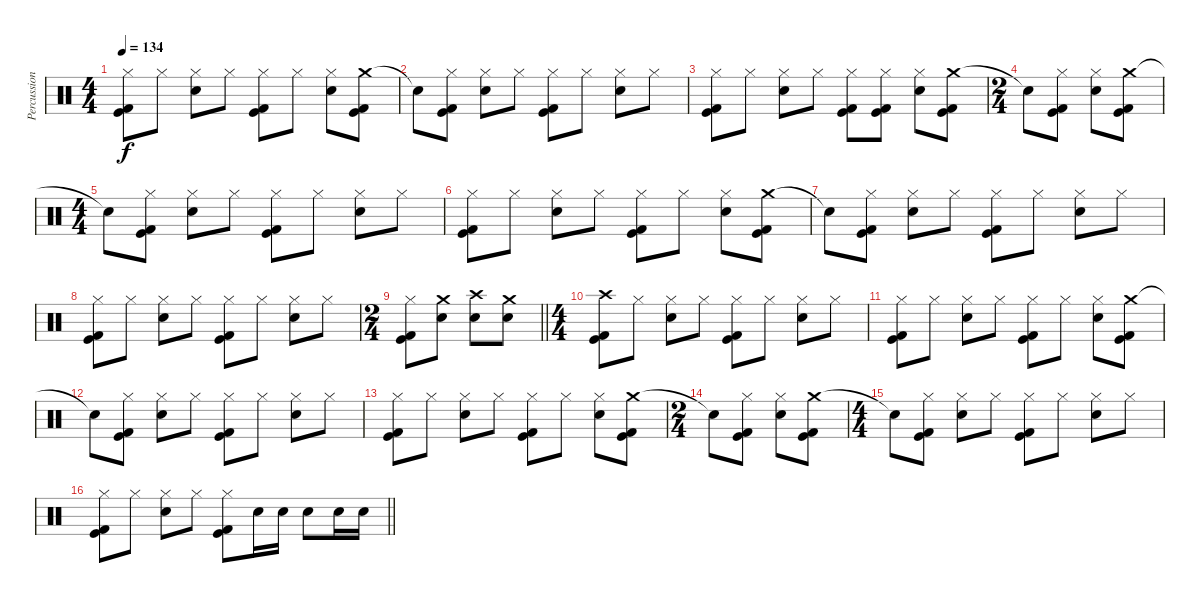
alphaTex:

\track ("Percussion" "Percussion") {instrument percussion}
\staff {score}
\articulation defaults
\ts (4 4)
\tempo 134
\clef neutral
\ks c
("Hi-Hat (closed)" "Kick (hit)" "Kick (hit) 2").8{dy f} "Hi-Hat (closed)".8 ("Hi-Hat (closed)" "Electric Snare (hit)").8 "Hi-Hat (closed)".8 ("Hi-Hat (closed)" "Kick (hit)" "Kick (hit) 2").8 "Hi-Hat (closed)".8 ("Hi-Hat (closed)" "Electric Snare (hit)").8 ("Crash medium (hit)" "Kick (hit)" "Kick (hit) 2").8 |
"Snare (hit)"{t}.8 ("Hi-Hat (closed)" "Kick (hit)" "Kick (hit) 2").8 ("Hi-Hat (closed)" "Electric Snare (hit)").8 "Hi-Hat (closed)".8 ("Hi-Hat (closed)" "Kick (hit)" "Kick (hit) 2").8 "Hi-Hat (closed)".8 ("Hi-Hat (closed)" "Electric Snare (hit)").8 "Hi-Hat (closed)".8 |
("Hi-Hat (closed)" "Kick (hit)" "Kick (hit) 2").8 "Hi-Hat (closed)".8 ("Hi-Hat (closed)" "Electric Snare (hit)").8 "Hi-Hat (closed)".8 ("Hi-Hat (closed)" "Kick (hit)" "Kick (hit) 2").8 ("Hi-Hat (closed)" "Kick (hit)" "Kick (hit) 2").8 ("Hi-Hat (closed)" "Electric Snare (hit)").8 ("Crash medium (hit)" "Kick (hit)" "Kick (hit) 2").8 |
\ts (2 4)
"Snare (hit)"{t}.8 ("Hi-Hat (closed)" "Kick (hit)" "Kick (hit) 2").8 ("Hi-Hat (closed)" "Electric Snare (hit)").8 ("Crash medium (hit)" "Kick (hit)" "Kick (hit) 2").8 |
\ts (4 4)
"Snare (hit)"{t}.8 ("Hi-Hat (closed)" "Kick (hit)" "Kick (hit) 2").8 ("Hi-Hat (closed)" "Electric Snare (hit)").8 "Hi-Hat (closed)".8 ("Hi-Hat (closed)" "Kick (hit)" "Kick (hit) 2").8 "Hi-Hat (closed)".8 ("Hi-Hat (closed)" "Electric Snare (hit)").8 "Hi-Hat (closed)".8 |
("Hi-Hat (closed)" "Kick (hit)" "Kick (hit) 2").8 "Hi-Hat (closed)".8 ("Hi-Hat (closed)" "Electric Snare (hit)").8 "Hi-Hat (closed)".8 ("Hi-Hat (closed)" "Kick (hit)" "Kick (hit) 2").8 "Hi-Hat (closed)".8 ("Hi-Hat (closed)" "Electric Snare (hit)").8 ("Crash medium (hit)" "Kick (hit)" "Kick (hit) 2").8 |
"Snare (hit)"{t}.8 ("Hi-Hat (closed)" "Kick (hit)" "Kick (hit) 2").8 ("Hi-Hat (closed)" "Electric Snare (hit)").8 "Hi-Hat (closed)".8 ("Hi-Hat (closed)" "Kick (hit)" "Kick (hit) 2").8 "Hi-Hat (closed)".8 ("Hi-Hat (closed)" "Electric Snare (hit)").8 "Hi-Hat (closed)".8 |
("Hi-Hat (closed)" "Kick (hit)" "Kick (hit) 2").8 "Hi-Hat (closed)".8 ("Hi-Hat (closed)" "Electric Snare (hit)").8 "Hi-Hat (closed)".8 ("Hi-Hat (closed)" "Kick (hit)" "Kick (hit) 2").8 "Hi-Hat (closed)".8 ("Hi-Hat (closed)" "Electric Snare (hit)").8 "Hi-Hat (closed)".8 |
\ts (2 4)
\barLineRight lightlight
("Hi-Hat (closed)" "Kick (hit)" "Kick (hit) 2").8 ("Crash medium (hit)" "Electric Snare (hit)").8 ("Crash high (hit)" "Electric Snare (hit)").8 ("Crash medium (hit)" "Electric Snare (hit)").8 |
\ts (4 4)
\section ("" "")
("Crash high (hit)" "Kick (hit)" "Kick (hit) 2").8 "Hi-Hat (closed)".8 ("Hi-Hat (closed)" "Electric Snare (hit)").8 "Hi-Hat (closed)".8 ("Hi-Hat (closed)" "Kick (hit)" "Kick (hit) 2").8 "Hi-Hat (closed)".8 ("Hi-Hat (closed)" "Electric Snare (hit)").8 "Hi-Hat (closed)".8 |
("Hi-Hat (closed)" "Kick (hit)" "Kick (hit) 2").8 "Hi-Hat (closed)".8 ("Hi-Hat (closed)" "Electric Snare (hit)").8 "Hi-Hat (closed)".8 ("Hi-Hat (closed)" "Kick (hit)" "Kick (hit) 2").8 "Hi-Hat (closed)".8 ("Hi-Hat (closed)" "Electric Snare (hit)").8 ("Crash medium (hit)" "Kick (hit)" "Kick (hit) 2").8 |
"Snare (hit)"{t}.8 ("Hi-Hat (closed)" "Kick (hit)" "Kick (hit) 2").8 ("Hi-Hat (closed)" "Electric Snare (hit)").8 "Hi-Hat (closed)".8 ("Hi-Hat (closed)" "Kick (hit)" "Kick (hit) 2").8 "Hi-Hat (closed)".8 ("Hi-Hat (closed)" "Electric Snare (hit)").8 "Hi-Hat (closed)".8 |
("Hi-Hat (closed)" "Kick (hit)" "Kick (hit) 2").8 "Hi-Hat (closed)".8 ("Hi-Hat (closed)" "Electric Snare (hit)").8 "Hi-Hat (closed)".8 ("Hi-Hat (closed)" "Kick (hit)" "Kick (hit) 2").8 "Hi-Hat (closed)".8 ("Hi-Hat (closed)" "Electric Snare (hit)").8 ("Crash medium (hit)" "Kick (hit)" "Kick (hit) 2").8 |
\ts (2 4)
"Snare (hit)"{t}.8 ("Hi-Hat (closed)" "Kick (hit)" "Kick (hit) 2").8 ("Hi-Hat (closed)" "Electric Snare (hit)").8 ("Crash medium (hit)" "Kick (hit)" "Kick (hit) 2").8 |
\ts (4 4)
"Snare (hit)"{t}.8 ("Hi-Hat (closed)" "Kick (hit)" "Kick (hit) 2").8 ("Hi-Hat (closed)" "Electric Snare (hit)").8 "Hi-Hat (closed)".8 ("Hi-Hat (closed)" "Kick (hit)" "Kick (hit) 2").8 "Hi-Hat (closed)".8 ("Hi-Hat (closed)" "Electric Snare (hit)").8 "Hi-Hat (closed)".8 |
\barLineRight lightlight
("Hi-Hat (closed)" "Kick (hit)" "Kick (hit) 2").8 "Hi-Hat (closed)".8 ("Hi-Hat (closed)" "Electric Snare (hit)").8 "Hi-Hat (closed)".8 ("Hi-Hat (closed)" "Kick (hit)" "Kick (hit) 2").8 "Electric Snare (hit)".16 "Electric Snare (hit)".16 "Electric Snare (hit)".8 "Electric Snare (hit)".16 "Electric Snare (hit)".16
